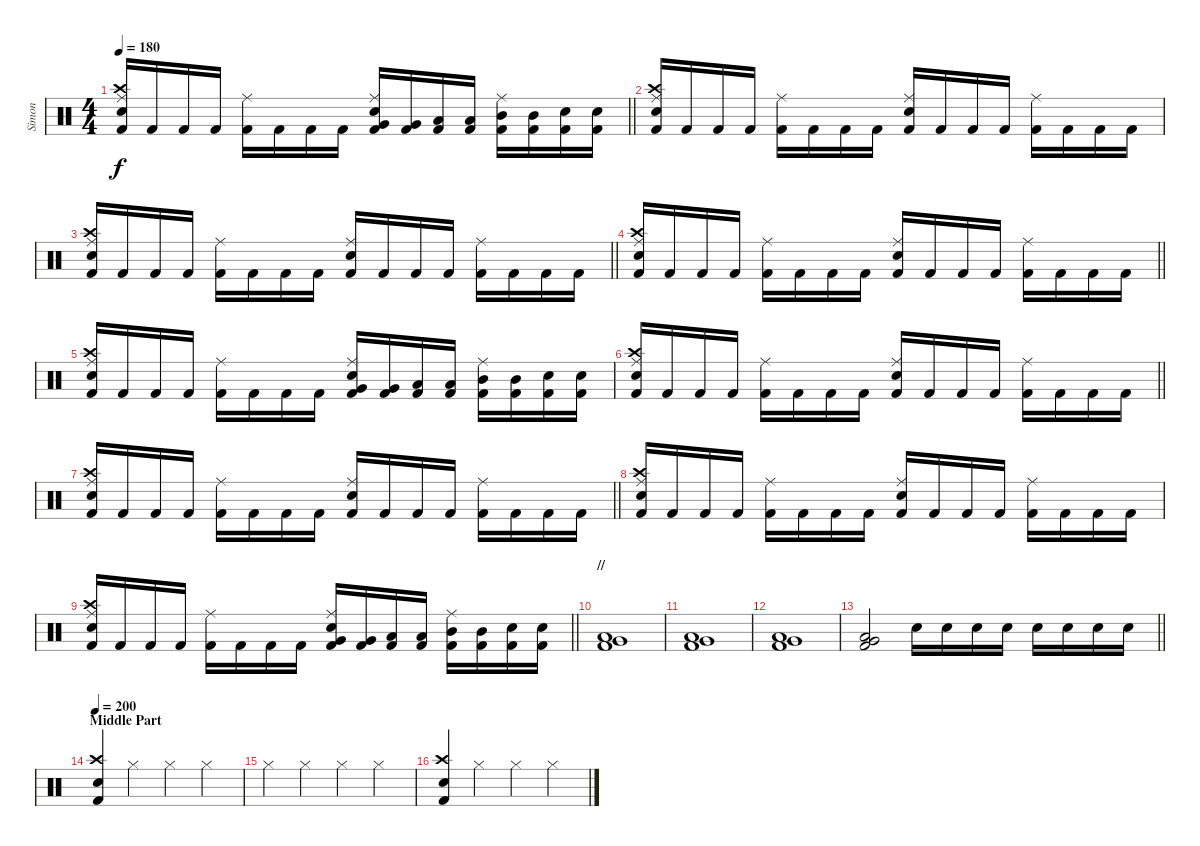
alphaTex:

\track ("Simon" "Simon") {instrument percussion}
\staff {score}
\articulation defaults
\ts (4 4)
\tempo 180
\clef neutral
\barLineRight lightlight
\ks c
("Electric Snare (hit)" "Crash high (hit)" "Ride (middle)" "Kick (hit) 2").16{dy f} "Kick (hit) 2".16 "Kick (hit) 2".16 "Kick (hit) 2".16 ("Ride (middle)" "Kick (hit) 2").16 "Kick (hit) 2".16 "Kick (hit) 2".16 "Kick (hit) 2".16 ("Electric Snare (hit)" "Ride (middle)" "Very Low Tom (hit)" "Kick (hit) 2").16 ("Very Low Tom (hit)" "Kick (hit) 2").16 ("Low Tom (hit)" "Kick (hit) 2").16 ("Low Tom (hit)" "Kick (hit) 2").16 ("Ride (middle)" "Mid Tom (hit)" "Kick (hit) 2").16 ("Mid Tom (hit)" "Kick (hit) 2").16 ("Electric Snare (hit)" "Kick (hit) 2").16 ("Electric Snare (hit)" "Kick (hit) 2").16 |
("Electric Snare (hit)" "Crash high (hit)" "Ride (middle)" "Kick (hit) 2").16 "Kick (hit) 2".16 "Kick (hit) 2".16 "Kick (hit) 2".16 ("Ride (middle)" "Kick (hit) 2").16 "Kick (hit) 2".16 "Kick (hit) 2".16 "Kick (hit) 2".16 ("Electric Snare (hit)" "Ride (middle)" "Kick (hit) 2").16 "Kick (hit) 2".16 "Kick (hit) 2".16 "Kick (hit) 2".16 ("Ride (middle)" "Kick (hit) 2").16 "Kick (hit) 2".16 "Kick (hit) 2".16 "Kick (hit) 2".16 |
\barLineRight lightlight
("Electric Snare (hit)" "Crash high (hit)" "Ride (middle)" "Kick (hit) 2").16 "Kick (hit) 2".16 "Kick (hit) 2".16 "Kick (hit) 2".16 ("Ride (middle)" "Kick (hit) 2").16 "Kick (hit) 2".16 "Kick (hit) 2".16 "Kick (hit) 2".16 ("Electric Snare (hit)" "Ride (middle)" "Kick (hit) 2").16 "Kick (hit) 2".16 "Kick (hit) 2".16 "Kick (hit) 2".16 ("Ride (middle)" "Kick (hit) 2").16 "Kick (hit) 2".16 "Kick (hit) 2".16 "Kick (hit) 2".16 |
\barLineRight lightlight
("Electric Snare (hit)" "Crash high (hit)" "Ride (middle)" "Kick (hit) 2").16 "Kick (hit) 2".16 "Kick (hit) 2".16 "Kick (hit) 2".16 ("Ride (middle)" "Kick (hit) 2").16 "Kick (hit) 2".16 "Kick (hit) 2".16 "Kick (hit) 2".16 ("Electric Snare (hit)" "Ride (middle)" "Kick (hit) 2").16 "Kick (hit) 2".16 "Kick (hit) 2".16 "Kick (hit) 2".16 ("Ride (middle)" "Kick (hit) 2").16 "Kick (hit) 2".16 "Kick (hit) 2".16 "Kick (hit) 2".16 |
("Electric Snare (hit)" "Crash high (hit)" "Ride (middle)" "Kick (hit) 2").16 "Kick (hit) 2".16 "Kick (hit) 2".16 "Kick (hit) 2".16 ("Ride (middle)" "Kick (hit) 2").16 "Kick (hit) 2".16 "Kick (hit) 2".16 "Kick (hit) 2".16 ("Electric Snare (hit)" "Ride (middle)" "Very Low Tom (hit)" "Kick (hit) 2").16 ("Very Low Tom (hit)" "Kick (hit) 2").16 ("Low Tom (hit)" "Kick (hit) 2").16 ("Low Tom (hit)" "Kick (hit) 2").16 ("Ride (middle)" "Mid Tom (hit)" "Kick (hit) 2").16 ("Mid Tom (hit)" "Kick (hit) 2").16 ("Electric Snare (hit)" "Kick (hit) 2").16 ("Electric Snare (hit)" "Kick (hit) 2").16 |
\barLineRight lightlight
("Electric Snare (hit)" "Crash high (hit)" "Ride (middle)" "Kick (hit) 2").16 "Kick (hit) 2".16 "Kick (hit) 2".16 "Kick (hit) 2".16 ("Ride (middle)" "Kick (hit) 2").16 "Kick (hit) 2".16 "Kick (hit) 2".16 "Kick (hit) 2".16 ("Electric Snare (hit)" "Ride (middle)" "Kick (hit) 2").16 "Kick (hit) 2".16 "Kick (hit) 2".16 "Kick (hit) 2".16 ("Ride (middle)" "Kick (hit) 2").16 "Kick (hit) 2".16 "Kick (hit) 2".16 "Kick (hit) 2".16 |
\barLineRight lightlight
("Electric Snare (hit)" "Crash high (hit)" "Ride (middle)" "Kick (hit) 2").16 "Kick (hit) 2".16 "Kick (hit) 2".16 "Kick (hit) 2".16 ("Ride (middle)" "Kick (hit) 2").16 "Kick (hit) 2".16 "Kick (hit) 2".16 "Kick (hit) 2".16 ("Electric Snare (hit)" "Ride (middle)" "Kick (hit) 2").16 "Kick (hit) 2".16 "Kick (hit) 2".16 "Kick (hit) 2".16 ("Ride (middle)" "Kick (hit) 2").16 "Kick (hit) 2".16 "Kick (hit) 2".16 "Kick (hit) 2".16 |
("Electric Snare (hit)" "Crash high (hit)" "Ride (middle)" "Kick (hit) 2").16 "Kick (hit) 2".16 "Kick (hit) 2".16 "Kick (hit) 2".16 ("Ride (middle)" "Kick (hit) 2").16 "Kick (hit) 2".16 "Kick (hit) 2".16 "Kick (hit) 2".16 ("Electric Snare (hit)" "Ride (middle)" "Kick (hit) 2").16 "Kick (hit) 2".16 "Kick (hit) 2".16 "Kick (hit) 2".16 ("Ride (middle)" "Kick (hit) 2").16 "Kick (hit) 2".16 "Kick (hit) 2".16 "Kick (hit) 2".16 |
\barLineRight lightlight
("Electric Snare (hit)" "Crash high (hit)" "Ride (middle)" "Kick (hit) 2").16 "Kick (hit) 2".16 "Kick (hit) 2".16 "Kick (hit) 2".16 ("Ride (middle)" "Kick (hit) 2").16 "Kick (hit) 2".16 "Kick (hit) 2".16 "Kick (hit) 2".16 ("Electric Snare (hit)" "Ride (middle)" "Very Low Tom (hit)" "Kick (hit) 2").16 ("Very Low Tom (hit)" "Kick (hit) 2").16 ("Low Tom (hit)" "Kick (hit) 2").16 ("Low Tom (hit)" "Kick (hit) 2").16 ("Ride (middle)" "Mid Tom (hit)" "Kick (hit) 2").16 ("Mid Tom (hit)" "Kick (hit) 2").16 ("Electric Snare (hit)" "Kick (hit) 2").16 ("Electric Snare (hit)" "Kick (hit) 2").16 |
\section ("" "//")
("Low Tom (hit)" "Very Low Tom (hit)" "Kick (hit) 2").1 |
("Low Tom (hit)" "Very Low Tom (hit)" "Kick (hit) 2").1 |
("Low Tom (hit)" "Very Low Tom (hit)" "Kick (hit) 2").1 |
\barLineRight lightlight
("Low Tom (hit)" "Very Low Tom (hit)" "Kick (hit) 2").2 "Electric Snare (hit)".16 "Electric Snare (hit)".16 "Electric Snare (hit)".16 "Electric Snare (hit)".16 "Electric Snare (hit)".16 "Electric Snare (hit)".16 "Electric Snare (hit)".16 "Electric Snare (hit)".16 |
\section ("" "Middle Part")
\tempo 200
("Crash high (hit)" "Electric Snare (hit)" "Kick (hit) 2").4 "Hi-Hat (closed)".4 "Hi-Hat (closed)".4 "Hi-Hat (closed)".4 |
"Hi-Hat (closed)".4 "Hi-Hat (closed)".4 "Hi-Hat (closed)".4 "Hi-Hat (closed)".4 |
("Crash high (hit)" "Electric Snare (hit)" "Kick (hit) 2").4 "Hi-Hat (closed)".4 "Hi-Hat (closed)".4 "Hi-Hat (closed)".4
